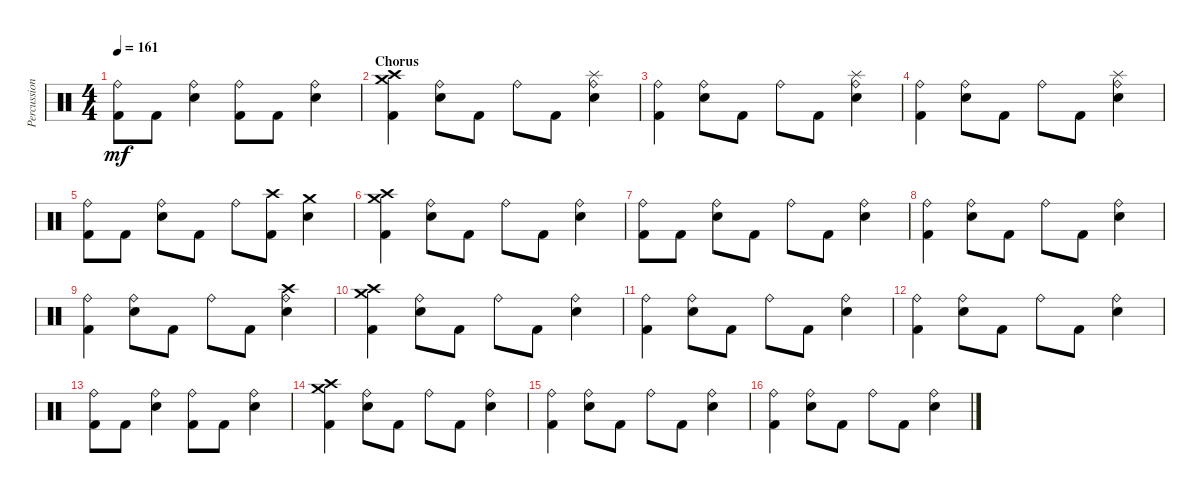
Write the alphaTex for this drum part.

\track ("Percussion" "Percussion") {instrument percussion}
\staff {score}
\articulation defaults
\ts (4 4)
\tempo 161
\clef neutral
\ks c
("Ride (bell)" "Kick (hit) 2").8{dy mf} "Kick (hit) 2".8 ("Ride (bell)" "Electric Snare (hit)").4 ("Ride (bell)" "Kick (hit) 2").8 "Kick (hit) 2".8 ("Ride (bell)" "Electric Snare (hit)").4 |
\section ("" "Chorus")
("Crash medium (hit)" "Crash high (hit)" "Kick (hit) 2").4 ("Ride (bell)" "Electric Snare (hit)").8 "Kick (hit) 2".8 "Ride (bell)".8 "Kick (hit) 2".8 ("Splash (hit)" "Ride (bell)" "Electric Snare (hit)").4 |
("Ride (bell)" "Kick (hit) 2").4 ("Ride (bell)" "Electric Snare (hit)").8 "Kick (hit) 2".8 "Ride (bell)".8 "Kick (hit) 2".8 ("Splash (hit)" "Ride (bell)" "Electric Snare (hit)").4 |
("Ride (bell)" "Kick (hit) 2").4 ("Ride (bell)" "Electric Snare (hit)").8 "Kick (hit) 2".8 "Ride (bell)".8 "Kick (hit) 2".8 ("Splash (hit)" "Ride (bell)" "Electric Snare (hit)").4 |
("Ride (bell)" "Kick (hit) 2").8 "Kick (hit) 2".8 ("Ride (bell)" "Electric Snare (hit)").8 "Kick (hit) 2".8 "Ride (bell)".8 ("Crash high (hit)" "Kick (hit) 2").8 ("Crash medium (hit)" "Electric Snare (hit)").4 |
("Crash medium (hit)" "Crash high (hit)" "Kick (hit) 2").4 ("Ride (bell)" "Electric Snare (hit)").8 "Kick (hit) 2".8 "Ride (bell)".8 "Kick (hit) 2".8 ("Ride (bell)" "Electric Snare (hit)").4 |
("Ride (bell)" "Kick (hit) 2").8 "Kick (hit) 2".8 ("Ride (bell)" "Electric Snare (hit)").8 "Kick (hit) 2".8 "Ride (bell)".8 "Kick (hit) 2".8 ("Ride (bell)" "Electric Snare (hit)").4 |
("Ride (bell)" "Kick (hit) 2").4 ("Ride (bell)" "Electric Snare (hit)").8 "Kick (hit) 2".8 "Ride (bell)".8 "Kick (hit) 2".8 ("Ride (bell)" "Electric Snare (hit)").4 |
("Ride (bell)" "Kick (hit) 2").4 ("Ride (bell)" "Electric Snare (hit)").8 "Kick (hit) 2".8 "Ride (bell)".8 "Kick (hit) 2".8 ("Crash high (hit)" "Ride (bell)" "Electric Snare (hit)").4 |
("Crash medium (hit)" "Crash high (hit)" "Kick (hit) 2").4 ("Ride (bell)" "Electric Snare (hit)").8 "Kick (hit) 2".8 "Ride (bell)".8 "Kick (hit) 2".8 ("Ride (bell)" "Electric Snare (hit)").4 |
("Ride (bell)" "Kick (hit) 2").4 ("Ride (bell)" "Electric Snare (hit)").8 "Kick (hit) 2".8 "Ride (bell)".8 "Kick (hit) 2".8 ("Ride (bell)" "Electric Snare (hit)").4 |
("Ride (bell)" "Kick (hit) 2").4 ("Ride (bell)" "Electric Snare (hit)").8 "Kick (hit) 2".8 "Ride (bell)".8 "Kick (hit) 2".8 ("Ride (bell)" "Electric Snare (hit)").4 |
("Ride (bell)" "Kick (hit) 2").8 "Kick (hit) 2".8 ("Ride (bell)" "Electric Snare (hit)").4 ("Ride (bell)" "Kick (hit) 2").8 "Kick (hit) 2".8 ("Ride (bell)" "Electric Snare (hit)").4 |
("Crash medium (hit)" "Crash high (hit)" "Kick (hit) 2").4 ("Ride (bell)" "Electric Snare (hit)").8 "Kick (hit) 2".8 "Ride (bell)".8 "Kick (hit) 2".8 ("Ride (bell)" "Electric Snare (hit)").4 |
("Ride (bell)" "Kick (hit) 2").4 ("Ride (bell)" "Electric Snare (hit)").8 "Kick (hit) 2".8 "Ride (bell)".8 "Kick (hit) 2".8 ("Ride (bell)" "Electric Snare (hit)").4 |
("Ride (bell)" "Kick (hit) 2").4 ("Ride (bell)" "Electric Snare (hit)").8 "Kick (hit) 2".8 "Ride (bell)".8 "Kick (hit) 2".8 ("Ride (bell)" "Electric Snare (hit)").4
